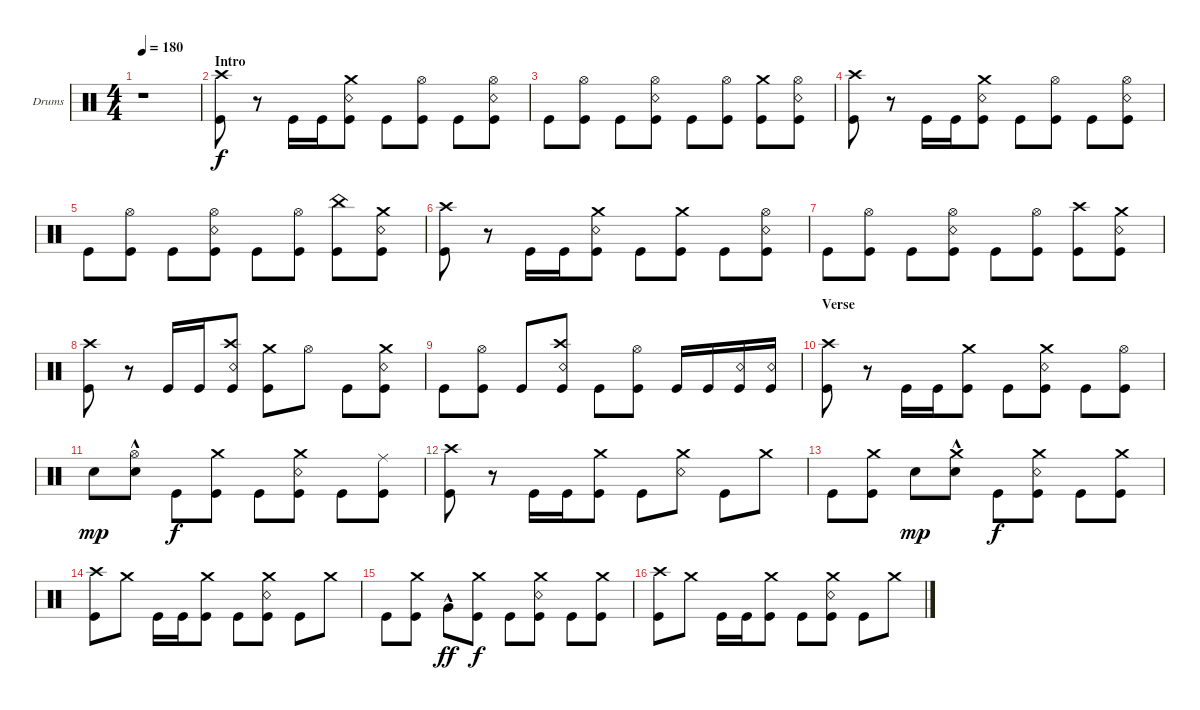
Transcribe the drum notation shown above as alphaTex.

\bracketExtendMode groupsimilarinstruments
\firstSystemTrackNameOrientation horizontal
\otherSystemsTrackNameOrientation horizontal
\track ("Drumkit" "Drums") {instrument percussion}
\staff {score}
\articulation defaults
\ts (4 4)
\tempo 180
\clef neutral
\ks c
r.1{dy f} |
\section ("" "Intro")
("Kick (hit)" "Crash high (hit)").8 r.8 "Kick (hit)".16 "Kick (hit)".16 ("Kick (hit)" "Snare (rim shot)" "Crash medium (hit)").8 "Kick (hit)".8 ("Kick (hit)" "Hi-Hat (open)").8 "Kick (hit)".8 ("Kick (hit)" "Snare (rim shot)" "Hi-Hat (open)").8 |
"Kick (hit)".8 ("Kick (hit)" "Hi-Hat (open)").8 "Kick (hit)".8 ("Kick (hit)" "Snare (rim shot)" "Hi-Hat (open)").8 "Kick (hit)".8 ("Kick (hit)" "Hi-Hat (open)").8 ("Kick (hit)" "Crash medium (hit)").8 ("Kick (hit)" "Snare (rim shot)" "Hi-Hat (open)").8 |
("Kick (hit)" "Crash high (hit)").8 r.8 "Kick (hit)".16 "Kick (hit)".16 ("Kick (hit)" "Snare (rim shot)" "Crash medium (hit)").8 "Kick (hit)".8 ("Kick (hit)" "Hi-Hat (open)").8 "Kick (hit)".8 ("Kick (hit)" "Snare (rim shot)" "Hi-Hat (open)").8 |
"Kick (hit)".8 ("Kick (hit)" "Hi-Hat (open)").8 "Kick (hit)".8 ("Kick (hit)" "Snare (rim shot)" "Hi-Hat (open)").8 "Kick (hit)".8 ("Kick (hit)" "Hi-Hat (open)").8 ("Kick (hit)" "China (hit)").8 ("Kick (hit)" "Snare (rim shot)" "Crash medium (hit)").8 |
("Kick (hit)" "Crash high (hit)").8 r.8 "Kick (hit)".16 "Kick (hit)".16 ("Kick (hit)" "Snare (rim shot)" "Crash medium (hit)").8 "Kick (hit)".8 ("Kick (hit)" "Crash medium (hit)").8 "Kick (hit)".8 ("Kick (hit)" "Snare (rim shot)" "Hi-Hat (open)").8 |
"Kick (hit)".8 ("Kick (hit)" "Hi-Hat (open)").8 "Kick (hit)".8 ("Kick (hit)" "Snare (rim shot)" "Hi-Hat (open)").8 "Kick (hit)".8 ("Kick (hit)" "Hi-Hat (open)").8 ("Kick (hit)" "Crash high (hit)").8 ("Kick (hit)" "Snare (rim shot)" "Crash medium (hit)").8 |
("Kick (hit)" "Crash high (hit)").8 r.8 "Kick (hit)".16 "Kick (hit)".16 ("Kick (hit)" "Snare (rim shot)" "Crash high (hit)").8 ("Kick (hit)" "Crash medium (hit)").8 "Hi-Hat (open)".8 "Kick (hit)".8 ("Kick (hit)" "Snare (rim shot)" "Crash medium (hit)").8 |
"Kick (hit)".8 ("Kick (hit)" "Hi-Hat (open)").8 "Kick (hit)".8 ("Kick (hit)" "Snare (rim shot)" "Crash high (hit)").8 "Kick (hit)".8 ("Kick (hit)" "Hi-Hat (open)").8{beam split} "Kick (hit)".16{beam merge} "Kick (hit)".16{beam merge} ("Kick (hit)" "Snare (rim shot)").16{beam merge} ("Kick (hit)" "Snare (rim shot)").16{beam merge} |
\section ("" "Verse")
("Crash high (hit)" "Kick (hit)").8 r.8 "Kick (hit)".16 "Kick (hit)".16 ("Kick (hit)" "Crash medium (hit)").8 "Kick (hit)".8 ("Kick (hit)" "Snare (rim shot)" "Crash medium (hit)").8 "Kick (hit)".8 ("Kick (hit)" "Hi-Hat (open)").8 |
"Snare (hit) 2".8{dy mp} ("Snare (hit) 2" "Hi-Hat (open)"{hac}).8 "Kick (hit)".8{dy f} ("Kick (hit)" "Crash medium (hit)").8 "Kick (hit)".8 ("Kick (hit)" "Snare (rim shot)" "Crash medium (hit)").8 "Kick (hit)".8 ("Kick (hit)" "Ride (middle)").8 |
("Kick (hit)" "Crash high (hit)").8 r.8 "Kick (hit)".16 "Kick (hit)".16 ("Kick (hit)" "Crash medium (hit)").8 "Kick (hit)".8 ("Snare (rim shot)" "Crash medium (hit)").8 "Kick (hit)".8 "Crash medium (hit)".8 |
"Kick (hit)".8 ("Kick (hit)" "Crash medium (hit)").8 "Snare (hit) 2".8{dy mp} ("Snare (hit) 2" "Crash medium (hit)"{hac}).8 "Kick (hit)".8{dy f} ("Kick (hit)" "Snare (rim shot)" "Crash medium (hit)").8 "Kick (hit)".8 ("Kick (hit)" "Crash medium (hit)").8 |
("Kick (hit)" "Crash high (hit)").8 "Crash medium (hit)".8 "Kick (hit)".16 "Kick (hit)".16 ("Kick (hit)" "Crash medium (hit)").8 "Kick (hit)".8 ("Kick (hit)" "Snare (rim shot)" "Crash medium (hit)").8 "Kick (hit)".8 "Crash medium (hit)".8 |
"Kick (hit)".8 ("Kick (hit)" "Crash medium (hit)").8 "Very Low Tom (hit)"{hac}.8{dy ff} ("Kick (hit)" "Crash medium (hit)").8{dy f} "Kick (hit)".8 ("Kick (hit)" "Snare (rim shot)" "Crash medium (hit)").8 "Kick (hit)".8 ("Kick (hit)" "Crash medium (hit)").8 |
("Kick (hit)" "Crash high (hit)").8 "Crash medium (hit)".8 "Kick (hit)".16 "Kick (hit)".16 ("Kick (hit)" "Crash medium (hit)").8 "Kick (hit)".8 ("Kick (hit)" "Snare (rim shot)" "Crash medium (hit)").8 "Kick (hit)".8 "Crash medium (hit)".8
